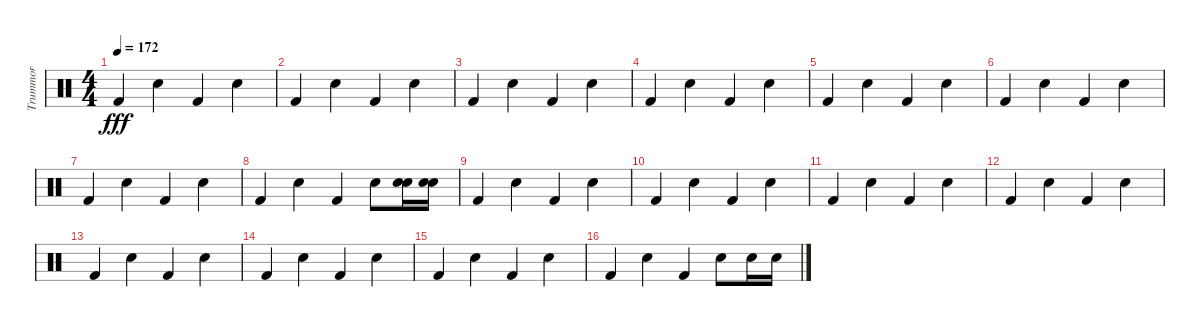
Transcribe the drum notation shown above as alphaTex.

\track ("Trummor" "Trummor") {instrument percussion}
\staff {score}
\articulation defaults
\ts (4 4)
\tempo 172
\clef neutral
\ks c "Kick (hit) 2".4{dy fff} "Snare (hit) 2".4 "Kick (hit) 2".4 "Snare (hit) 2".4
|
"Kick (hit) 2".4 "Snare (hit) 2".4 "Kick (hit) 2".4 "Snare (hit) 2".4 |
"Kick (hit) 2".4 "Snare (hit) 2".4 "Kick (hit) 2".4 "Snare (hit) 2".4 |
"Kick (hit) 2".4 "Snare (hit) 2".4 "Kick (hit) 2".4 "Snare (hit) 2".4 |
"Kick (hit) 2".4 "Snare (hit) 2".4 "Kick (hit) 2".4 "Snare (hit) 2".4 |
"Kick (hit) 2".4 "Snare (hit) 2".4 "Kick (hit) 2".4 "Snare (hit) 2".4 |
"Kick (hit) 2".4 "Snare (hit) 2".4 "Kick (hit) 2".4 "Snare (hit) 2".4 |
"Kick (hit) 2".4 "Snare (hit) 2".4 "Kick (hit) 2".4 "Snare (hit) 2".8 ("Snare (hit) 2" "Snare (hit) 2").16 ("Snare (hit) 2" "Snare (hit) 2").16 |
"Kick (hit) 2".4 "Snare (hit) 2".4 "Kick (hit) 2".4 "Snare (hit) 2".4 |
"Kick (hit) 2".4 "Snare (hit) 2".4 "Kick (hit) 2".4 "Snare (hit) 2".4 |
"Kick (hit) 2".4 "Snare (hit) 2".4 "Kick (hit) 2".4 "Snare (hit) 2".4 |
"Kick (hit) 2".4 "Snare (hit) 2".4 "Kick (hit) 2".4 "Snare (hit) 2".4 |
"Kick (hit) 2".4 "Snare (hit) 2".4 "Kick (hit) 2".4 "Snare (hit) 2".4 |
"Kick (hit) 2".4 "Snare (hit) 2".4 "Kick (hit) 2".4 "Snare (hit) 2".4 |
"Kick (hit) 2".4 "Snare (hit) 2".4 "Kick (hit) 2".4 "Snare (hit) 2".4 |
"Kick (hit) 2".4 "Snare (hit) 2".4 "Kick (hit) 2".4 "Snare (hit) 2".8 "Snare (hit) 2".16 "Snare (hit) 2".16
